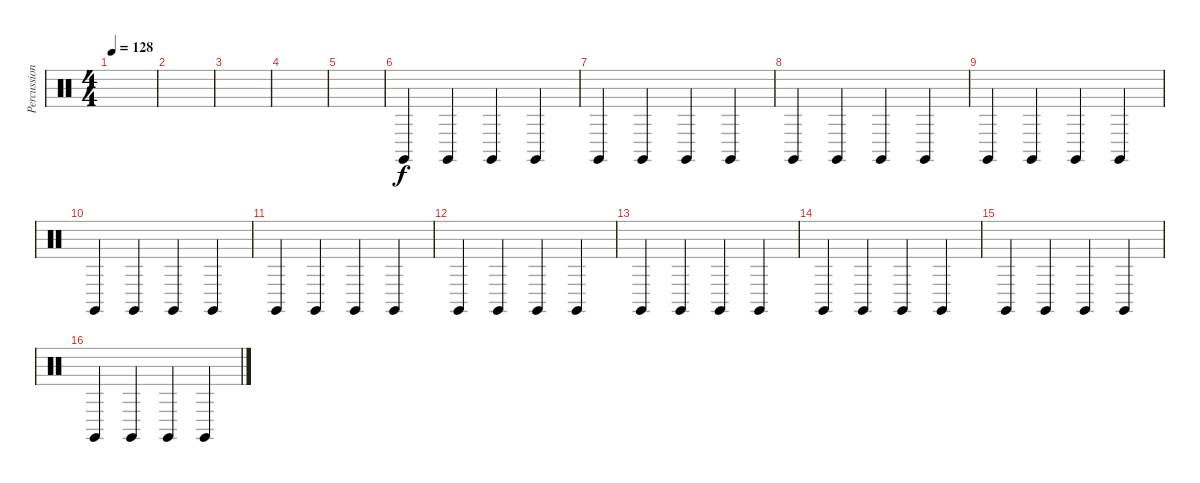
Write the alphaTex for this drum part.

\track ("Percussion" "Percussion") {instrument percussion}
\staff {score}
\articulation defaults
\ts (4 4)
\tempo 128
\clef neutral
\ks c
|
|
|
|
|
"Claves (hit)".4 "Claves (hit)".4 "Claves (hit)".4 "Claves (hit)".4 |
"Claves (hit)".4 "Claves (hit)".4 "Claves (hit)".4 "Claves (hit)".4 |
"Claves (hit)".4 "Claves (hit)".4 "Claves (hit)".4 "Claves (hit)".4 |
"Claves (hit)".4 "Claves (hit)".4 "Claves (hit)".4 "Claves (hit)".4 |
"Claves (hit)".4 "Claves (hit)".4 "Claves (hit)".4 "Claves (hit)".4 |
"Claves (hit)".4 "Claves (hit)".4 "Claves (hit)".4 "Claves (hit)".4 |
"Claves (hit)".4 "Claves (hit)".4 "Claves (hit)".4 "Claves (hit)".4 |
"Claves (hit)".4 "Claves (hit)".4 "Claves (hit)".4 "Claves (hit)".4 |
"Claves (hit)".4 "Claves (hit)".4 "Claves (hit)".4 "Claves (hit)".4 |
"Claves (hit)".4 "Claves (hit)".4 "Claves (hit)".4 "Claves (hit)".4 |
"Claves (hit)".4 "Claves (hit)".4 "Claves (hit)".4 "Claves (hit)".4
